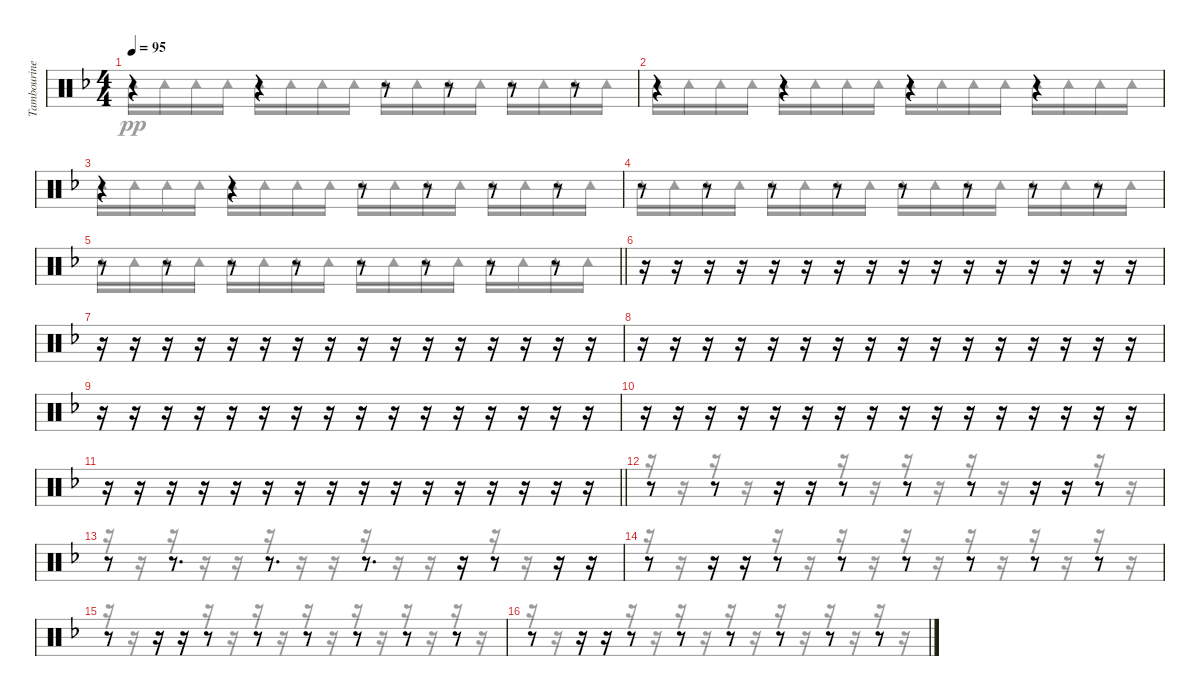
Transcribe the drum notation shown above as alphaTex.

\track ("Tambourine" "Tambourine") {instrument percussion}
\staff {score}
\articulation defaults
\voice
\ts (4 4)
\tempo 95
\clef neutral
\ks f
r.4{dy f} r.4 r.8 r.8 r.8 r.8 |
r.4 r.4 r.4 r.4 |
r.4 r.4 r.8 r.8 r.8 r.8 |
r.8 r.8 r.8 r.8 r.8 r.8 r.8 r.8 |
\barLineRight lightlight
r.8 r.8 r.8 r.8 r.8 r.8 r.8 r.8 |
r.16 r.16 r.16 r.16 r.16 r.16 r.16 r.16 r.16 r.16 r.16 r.16 r.16 r.16 r.16 r.16 |
r.16 r.16 r.16 r.16 r.16 r.16 r.16 r.16 r.16 r.16 r.16 r.16 r.16 r.16 r.16 r.16 |
r.16 r.16 r.16 r.16 r.16 r.16 r.16 r.16 r.16 r.16 r.16 r.16 r.16 r.16 r.16 r.16 |
r.16 r.16 r.16 r.16 r.16 r.16 r.16 r.16 r.16 r.16 r.16 r.16 r.16 r.16 r.16 r.16 |
r.16 r.16 r.16 r.16 r.16 r.16 r.16 r.16 r.16 r.16 r.16 r.16 r.16 r.16 r.16 r.16 |
\barLineRight lightlight
r.16 r.16 r.16 r.16 r.16 r.16 r.16 r.16 r.16 r.16 r.16 r.16 r.16 r.16 r.16 r.16 |
r.8 r.8 r.16 r.16 r.8 r.8 r.8 r.16 r.16 r.8 |
r.8 r.8{d} r.8{d} r.8{d} r.16 r.8 r.16 r.16 |
r.8 r.16 r.16 r.8 r.8 r.8 r.8 r.8 r.8 |
r.8 r.16 r.16 r.8 r.8 r.8 r.8 r.8 r.8 |
r.8 r.16 r.16 r.8 r.8 r.8 r.8 r.8 r.8
\voice
\clef neutral
\ottava regular
\simile none
\ks f "Tambourine (hit)".16{dy pp} "Tambourine (hit)".16 "Tambourine (hit)".16 "Tambourine (hit)".16 "Tambourine (hit)".16 "Tambourine (hit)".16 "Tambourine (hit)".16 "Tambourine (hit)".16 "Tambourine (hit)".16 "Tambourine (hit)".16 "Tambourine (hit)".16 "Tambourine (hit)".16 "Tambourine (hit)".16 "Tambourine (hit)".16 "Tambourine (hit)".16 "Tambourine (hit)".16
|
"Tambourine (hit)".16 "Tambourine (hit)".16 "Tambourine (hit)".16 "Tambourine (hit)".16 "Tambourine (hit)".16 "Tambourine (hit)".16 "Tambourine (hit)".16 "Tambourine (hit)".16 "Tambourine (hit)".16 "Tambourine (hit)".16 "Tambourine (hit)".16 "Tambourine (hit)".16 "Tambourine (hit)".16 "Tambourine (hit)".16 "Tambourine (hit)".16 "Tambourine (hit)".16 |
"Tambourine (hit)".16 "Tambourine (hit)".16 "Tambourine (hit)".16 "Tambourine (hit)".16 "Tambourine (hit)".16 "Tambourine (hit)".16 "Tambourine (hit)".16 "Tambourine (hit)".16 "Tambourine (hit)".16 "Tambourine (hit)".16 "Tambourine (hit)".16 "Tambourine (hit)".16 "Tambourine (hit)".16 "Tambourine (hit)".16 "Tambourine (hit)".16 "Tambourine (hit)".16 |
"Tambourine (hit)".16 "Tambourine (hit)".16 "Tambourine (hit)".16 "Tambourine (hit)".16 "Tambourine (hit)".16 "Tambourine (hit)".16 "Tambourine (hit)".16 "Tambourine (hit)".16 "Tambourine (hit)".16 "Tambourine (hit)".16 "Tambourine (hit)".16 "Tambourine (hit)".16 "Tambourine (hit)".16 "Tambourine (hit)".16 "Tambourine (hit)".16 "Tambourine (hit)".16 |
\barLineRight lightlight "Tambourine (hit)".16 "Tambourine (hit)".16 "Tambourine (hit)".16 "Tambourine (hit)".16 "Tambourine (hit)".16 "Tambourine (hit)".16 "Tambourine (hit)".16 "Tambourine (hit)".16 "Tambourine (hit)".16 "Tambourine (hit)".16 "Tambourine (hit)".16 "Tambourine (hit)".16 "Tambourine (hit)".16 "Tambourine (hit)".16 "Tambourine (hit)".16 "Tambourine (hit)".16
|
|
|
|
|
|
\barLineRight lightlight
|
r.16 r.16 r.16 r.16 r.16 r.16 r.16 r.16 r.16 r.16 r.16 r.16 r.16 r.16 r.16 r.16 |
r.16 r.16 r.16 r.16 r.16 r.16 r.16 r.16 r.16 r.16 r.16 r.16 r.16 r.16 r.16 r.16 |
r.16 r.16 r.16 r.16 r.16 r.16 r.16 r.16 r.16 r.16 r.16 r.16 r.16 r.16 r.16 r.16 |
r.16 r.16 r.16 r.16 r.16 r.16 r.16 r.16 r.16 r.16 r.16 r.16 r.16 r.16 r.16 r.16 |
r.16 r.16 r.16 r.16 r.16 r.16 r.16 r.16 r.16 r.16 r.16 r.16 r.16 r.16 r.16 r.16
